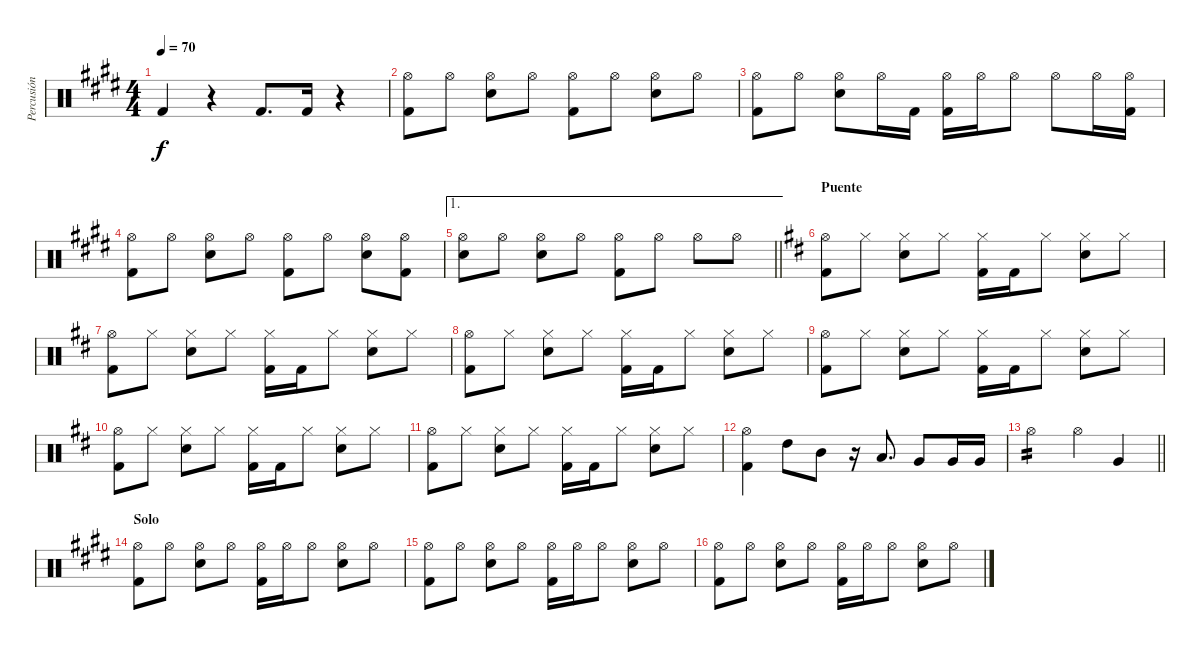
\track ("Percusión" "Percusión") {instrument percussion}
\staff {score}
\articulation defaults
\ts (4 4)
\tempo 70
\clef neutral
\ks e "Kick (hit) 2".4{dy f}
r.4 "Kick (hit) 2".8{d} "Kick (hit) 2".16 r.4 |
("Hi-Hat (open)" "Kick (hit) 2").8 "Hi-Hat (open)".8 ("Hi-Hat (open)" "Snare (hit) 2").8 "Hi-Hat (open)".8 ("Hi-Hat (open)" "Kick (hit) 2").8 "Hi-Hat (open)".8 ("Hi-Hat (open)" "Snare (hit) 2").8 "Hi-Hat (open)".8 |
("Hi-Hat (open)" "Kick (hit) 2").8 "Hi-Hat (open)".8 ("Hi-Hat (open)" "Snare (hit) 2").8 "Hi-Hat (open)".16 "Kick (hit) 2".16 ("Hi-Hat (open)" "Kick (hit) 2").16 "Hi-Hat (open)".16 "Hi-Hat (open)".8 "Hi-Hat (open)".8 "Hi-Hat (open)".16 ("Hi-Hat (open)" "Kick (hit) 2").16 |
("Hi-Hat (open)" "Kick (hit) 2").8 "Hi-Hat (open)".8 ("Hi-Hat (open)" "Snare (hit) 2").8 "Hi-Hat (open)".8 ("Hi-Hat (open)" "Kick (hit) 2").8 "Hi-Hat (open)".8 ("Hi-Hat (open)" "Snare (hit) 2").8 ("Hi-Hat (open)" "Kick (hit) 2").8 |
\ae 1
\barLineRight lightlight
("Hi-Hat (open)" "Snare (hit)").8 "Hi-Hat (open)".8 ("Hi-Hat (open)" "Snare (hit) 2").8 "Hi-Hat (open)".8 ("Hi-Hat (open)" "Kick (hit) 2").8 "Hi-Hat (open)".8 "Hi-Hat (open)".8 "Hi-Hat (open)".8 |
\section ("" "Puente")
\ks d
("Hi-Hat (open)" "Kick (hit) 2").8 "Hi-Hat (closed)".8 ("Hi-Hat (closed)" "Snare (hit) 2").8 "Hi-Hat (closed)".8 ("Hi-Hat (closed)" "Kick (hit) 2").16 "Kick (hit) 2".16 "Hi-Hat (closed)".8 ("Hi-Hat (closed)" "Snare (hit) 2").8 "Hi-Hat (closed)".8 |
("Hi-Hat (open)" "Kick (hit) 2").8 "Hi-Hat (closed)".8 ("Hi-Hat (closed)" "Snare (hit) 2").8 "Hi-Hat (closed)".8 ("Hi-Hat (closed)" "Kick (hit) 2").16 "Kick (hit) 2".16 "Hi-Hat (closed)".8 ("Hi-Hat (closed)" "Snare (hit) 2").8 "Hi-Hat (closed)".8 |
("Hi-Hat (open)" "Kick (hit) 2").8 "Hi-Hat (closed)".8 ("Hi-Hat (closed)" "Snare (hit) 2").8 "Hi-Hat (closed)".8 ("Hi-Hat (closed)" "Kick (hit) 2").16 "Kick (hit) 2".16 "Hi-Hat (closed)".8 ("Hi-Hat (closed)" "Snare (hit) 2").8 "Hi-Hat (closed)".8 |
("Hi-Hat (open)" "Kick (hit) 2").8 "Hi-Hat (closed)".8 ("Hi-Hat (closed)" "Snare (hit) 2").8 "Hi-Hat (closed)".8 ("Hi-Hat (closed)" "Kick (hit) 2").16 "Kick (hit) 2".16 "Hi-Hat (closed)".8 ("Hi-Hat (closed)" "Snare (hit) 2").8 "Hi-Hat (closed)".8 |
("Hi-Hat (open)" "Kick (hit) 2").8 "Hi-Hat (closed)".8 ("Hi-Hat (closed)" "Snare (hit) 2").8 "Hi-Hat (closed)".8 ("Hi-Hat (closed)" "Kick (hit) 2").16 "Kick (hit) 2".16 "Hi-Hat (closed)".8 ("Hi-Hat (closed)" "Snare (hit) 2").8 "Hi-Hat (closed)".8 |
("Hi-Hat (open)" "Kick (hit) 2").8 "Hi-Hat (closed)".8 ("Hi-Hat (closed)" "Snare (hit) 2").8 "Hi-Hat (closed)".8 ("Hi-Hat (closed)" "Kick (hit) 2").16 "Kick (hit) 2".16 "Hi-Hat (closed)".8 ("Hi-Hat (closed)" "Snare (hit) 2").8 "Hi-Hat (closed)".8 |
("Hi-Hat (open)" "Kick (hit) 2").4 "High Tom (hit)".8 "Mid Tom (hit)".8 r.16 "Low Tom (hit)".8{d} "Very Low Tom (hit)".8 "Very Low Tom (hit)".16 "Very Low Tom (hit)".16 |
\barLineRight lightlight "Hi-Hat (open)".2{tp 2} "Hi-Hat (open)".4 "Very Low Tom (hit)".4
|
\section ("" "Solo")
\ks e
("Hi-Hat (open)" "Kick (hit) 2").8 "Hi-Hat (open)".8 ("Hi-Hat (open)" "Snare (hit) 2").8 "Hi-Hat (open)".8 ("Hi-Hat (open)" "Kick (hit) 2").16 "Hi-Hat (open)".16 "Hi-Hat (open)".8 ("Hi-Hat (open)" "Snare (hit) 2").8 "Hi-Hat (open)".8 |
("Hi-Hat (open)" "Kick (hit) 2").8 "Hi-Hat (open)".8 ("Hi-Hat (open)" "Snare (hit) 2").8 "Hi-Hat (open)".8 ("Hi-Hat (open)" "Kick (hit) 2").16 "Hi-Hat (open)".16 "Hi-Hat (open)".8 ("Hi-Hat (open)" "Snare (hit) 2").8 "Hi-Hat (open)".8 |
("Hi-Hat (open)" "Kick (hit) 2").8 "Hi-Hat (open)".8 ("Hi-Hat (open)" "Snare (hit) 2").8 "Hi-Hat (open)".8 ("Hi-Hat (open)" "Kick (hit) 2").16 "Hi-Hat (open)".16 "Hi-Hat (open)".8 ("Hi-Hat (open)" "Snare (hit) 2").8 "Hi-Hat (open)".8
